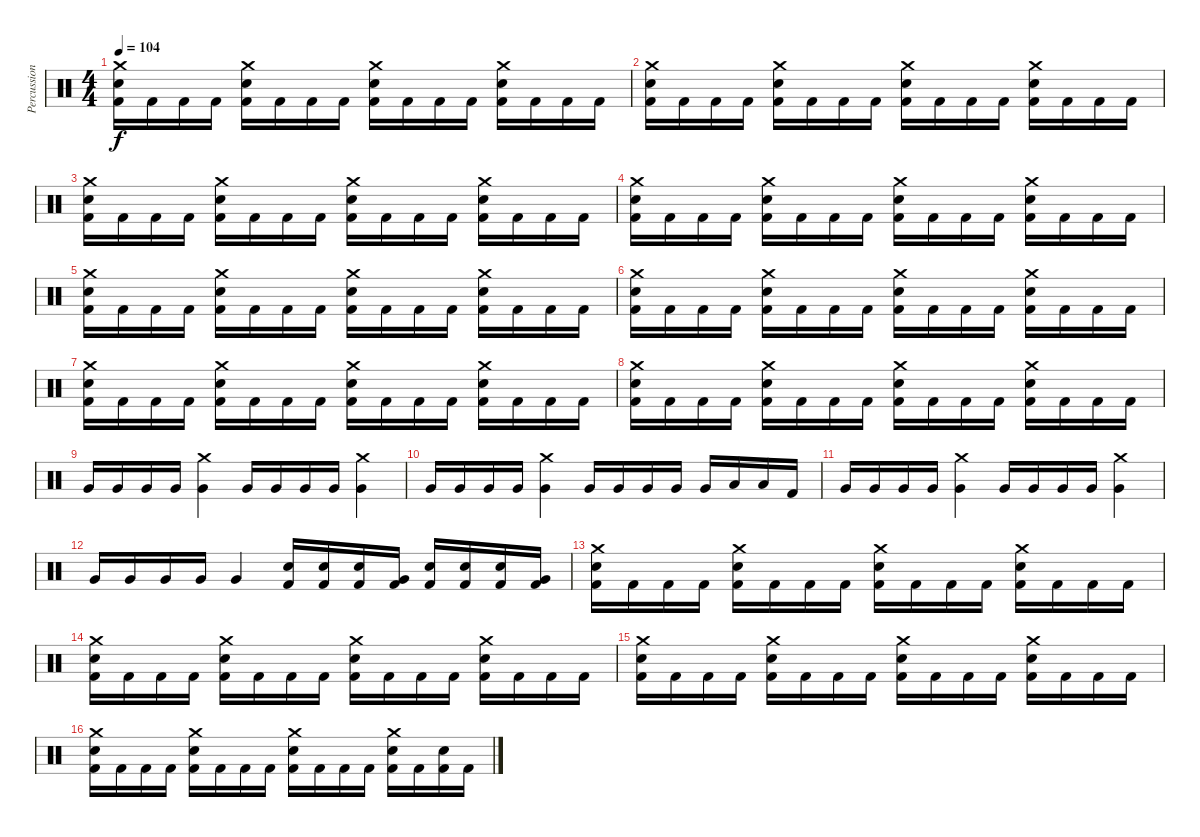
\track ("Percussion" "Percussion") {instrument percussion}
\staff {score}
\articulation defaults
\ts (4 4)
\tempo 104
\clef neutral
\ks c
("Crash medium (hit)" "Snare (hit) 2" "Kick (hit) 2").16{dy f} "Kick (hit) 2".16 "Kick (hit) 2".16 "Kick (hit) 2".16 ("Crash medium (hit)" "Snare (hit) 2" "Kick (hit) 2").16 "Kick (hit) 2".16 "Kick (hit) 2".16 "Kick (hit) 2".16 ("Crash medium (hit)" "Snare (hit) 2" "Kick (hit) 2").16 "Kick (hit) 2".16 "Kick (hit) 2".16 "Kick (hit) 2".16 ("Crash medium (hit)" "Snare (hit) 2" "Kick (hit) 2").16 "Kick (hit) 2".16 "Kick (hit) 2".16 "Kick (hit) 2".16 |
("Crash medium (hit)" "Snare (hit) 2" "Kick (hit) 2").16 "Kick (hit) 2".16 "Kick (hit) 2".16 "Kick (hit) 2".16 ("Crash medium (hit)" "Snare (hit) 2" "Kick (hit) 2").16 "Kick (hit) 2".16 "Kick (hit) 2".16 "Kick (hit) 2".16 ("Crash medium (hit)" "Snare (hit) 2" "Kick (hit) 2").16 "Kick (hit) 2".16 "Kick (hit) 2".16 "Kick (hit) 2".16 ("Crash medium (hit)" "Snare (hit) 2" "Kick (hit) 2").16 "Kick (hit) 2".16 "Kick (hit) 2".16 "Kick (hit) 2".16 |
("Crash medium (hit)" "Snare (hit) 2" "Kick (hit) 2").16 "Kick (hit) 2".16 "Kick (hit) 2".16 "Kick (hit) 2".16 ("Crash medium (hit)" "Snare (hit) 2" "Kick (hit) 2").16 "Kick (hit) 2".16 "Kick (hit) 2".16 "Kick (hit) 2".16 ("Crash medium (hit)" "Snare (hit) 2" "Kick (hit) 2").16 "Kick (hit) 2".16 "Kick (hit) 2".16 "Kick (hit) 2".16 ("Crash medium (hit)" "Snare (hit) 2" "Kick (hit) 2").16 "Kick (hit) 2".16 "Kick (hit) 2".16 "Kick (hit) 2".16 |
("Crash medium (hit)" "Snare (hit) 2" "Kick (hit) 2").16 "Kick (hit) 2".16 "Kick (hit) 2".16 "Kick (hit) 2".16 ("Crash medium (hit)" "Snare (hit) 2" "Kick (hit) 2").16 "Kick (hit) 2".16 "Kick (hit) 2".16 "Kick (hit) 2".16 ("Crash medium (hit)" "Snare (hit) 2" "Kick (hit) 2").16 "Kick (hit) 2".16 "Kick (hit) 2".16 "Kick (hit) 2".16 ("Crash medium (hit)" "Snare (hit) 2" "Kick (hit) 2").16 "Kick (hit) 2".16 "Kick (hit) 2".16 "Kick (hit) 2".16 |
("Crash medium (hit)" "Snare (hit) 2" "Kick (hit) 2").16 "Kick (hit) 2".16 "Kick (hit) 2".16 "Kick (hit) 2".16 ("Crash medium (hit)" "Snare (hit) 2" "Kick (hit) 2").16 "Kick (hit) 2".16 "Kick (hit) 2".16 "Kick (hit) 2".16 ("Crash medium (hit)" "Snare (hit) 2" "Kick (hit) 2").16 "Kick (hit) 2".16 "Kick (hit) 2".16 "Kick (hit) 2".16 ("Crash medium (hit)" "Snare (hit) 2" "Kick (hit) 2").16 "Kick (hit) 2".16 "Kick (hit) 2".16 "Kick (hit) 2".16 |
("Crash medium (hit)" "Snare (hit) 2" "Kick (hit) 2").16 "Kick (hit) 2".16 "Kick (hit) 2".16 "Kick (hit) 2".16 ("Crash medium (hit)" "Snare (hit) 2" "Kick (hit) 2").16 "Kick (hit) 2".16 "Kick (hit) 2".16 "Kick (hit) 2".16 ("Crash medium (hit)" "Snare (hit) 2" "Kick (hit) 2").16 "Kick (hit) 2".16 "Kick (hit) 2".16 "Kick (hit) 2".16 ("Crash medium (hit)" "Snare (hit) 2" "Kick (hit) 2").16 "Kick (hit) 2".16 "Kick (hit) 2".16 "Kick (hit) 2".16 |
("Crash medium (hit)" "Snare (hit) 2" "Kick (hit) 2").16 "Kick (hit) 2".16 "Kick (hit) 2".16 "Kick (hit) 2".16 ("Crash medium (hit)" "Snare (hit) 2" "Kick (hit) 2").16 "Kick (hit) 2".16 "Kick (hit) 2".16 "Kick (hit) 2".16 ("Crash medium (hit)" "Snare (hit) 2" "Kick (hit) 2").16 "Kick (hit) 2".16 "Kick (hit) 2".16 "Kick (hit) 2".16 ("Crash medium (hit)" "Snare (hit) 2" "Kick (hit) 2").16 "Kick (hit) 2".16 "Kick (hit) 2".16 "Kick (hit) 2".16 |
("Crash medium (hit)" "Snare (hit) 2" "Kick (hit) 2").16 "Kick (hit) 2".16 "Kick (hit) 2".16 "Kick (hit) 2".16 ("Crash medium (hit)" "Snare (hit) 2" "Kick (hit) 2").16 "Kick (hit) 2".16 "Kick (hit) 2".16 "Kick (hit) 2".16 ("Crash medium (hit)" "Snare (hit) 2" "Kick (hit) 2").16 "Kick (hit) 2".16 "Kick (hit) 2".16 "Kick (hit) 2".16 ("Crash medium (hit)" "Snare (hit) 2" "Kick (hit) 2").16 "Kick (hit) 2".16 "Kick (hit) 2".16 "Kick (hit) 2".16 |
"Very Low Tom (hit)".16 "Very Low Tom (hit)".16 "Very Low Tom (hit)".16 "Very Low Tom (hit)".16 ("Crash medium (hit)" "Very Low Tom (hit)").4 "Very Low Tom (hit)".16 "Very Low Tom (hit)".16 "Very Low Tom (hit)".16 "Very Low Tom (hit)".16 ("Crash medium (hit)" "Very Low Tom (hit)").4 |
"Very Low Tom (hit)".16 "Very Low Tom (hit)".16 "Very Low Tom (hit)".16 "Very Low Tom (hit)".16 ("Crash medium (hit)" "Very Low Tom (hit)").4 "Very Low Tom (hit)".16 "Very Low Tom (hit)".16 "Very Low Tom (hit)".16 "Very Low Tom (hit)".16 "Very Low Tom (hit)".16 "Low Floor Tom (hit)".16 "Low Floor Tom (hit)".16 "Kick (hit) 2".16 |
"Very Low Tom (hit)".16 "Very Low Tom (hit)".16 "Very Low Tom (hit)".16 "Very Low Tom (hit)".16 ("Crash medium (hit)" "Very Low Tom (hit)").4 "Very Low Tom (hit)".16 "Very Low Tom (hit)".16 "Very Low Tom (hit)".16 "Very Low Tom (hit)".16 ("Crash medium (hit)" "Very Low Tom (hit)").4 |
"Very Low Tom (hit)".16 "Very Low Tom (hit)".16 "Very Low Tom (hit)".16 "Very Low Tom (hit)".16 "Very Low Tom (hit)".4 ("Snare (hit) 2" "Kick (hit) 2").16 ("Snare (hit) 2" "Kick (hit) 2").16 ("Snare (hit) 2" "Kick (hit) 2").16 ("Very Low Tom (hit)" "Kick (hit) 2").16 ("Snare (hit) 2" "Kick (hit) 2").16 ("Snare (hit) 2" "Kick (hit) 2").16 ("Snare (hit) 2" "Kick (hit) 2").16 ("Very Low Tom (hit)" "Kick (hit) 2").16 |
("Crash medium (hit)" "Snare (hit) 2" "Kick (hit) 2").16 "Kick (hit) 2".16 "Kick (hit) 2".16 "Kick (hit) 2".16 ("Crash medium (hit)" "Snare (hit) 2" "Kick (hit) 2").16 "Kick (hit) 2".16 "Kick (hit) 2".16 "Kick (hit) 2".16 ("Crash medium (hit)" "Snare (hit) 2" "Kick (hit) 2").16 "Kick (hit) 2".16 "Kick (hit) 2".16 "Kick (hit) 2".16 ("Crash medium (hit)" "Snare (hit) 2" "Kick (hit) 2").16 "Kick (hit) 2".16 "Kick (hit) 2".16 "Kick (hit) 2".16 |
("Crash medium (hit)" "Snare (hit) 2" "Kick (hit) 2").16 "Kick (hit) 2".16 "Kick (hit) 2".16 "Kick (hit) 2".16 ("Crash medium (hit)" "Snare (hit) 2" "Kick (hit) 2").16 "Kick (hit) 2".16 "Kick (hit) 2".16 "Kick (hit) 2".16 ("Crash medium (hit)" "Snare (hit) 2" "Kick (hit) 2").16 "Kick (hit) 2".16 "Kick (hit) 2".16 "Kick (hit) 2".16 ("Crash medium (hit)" "Snare (hit) 2" "Kick (hit) 2").16 "Kick (hit) 2".16 "Kick (hit) 2".16 "Kick (hit) 2".16 |
("Crash medium (hit)" "Snare (hit) 2" "Kick (hit) 2").16 "Kick (hit) 2".16 "Kick (hit) 2".16 "Kick (hit) 2".16 ("Crash medium (hit)" "Snare (hit) 2" "Kick (hit) 2").16 "Kick (hit) 2".16 "Kick (hit) 2".16 "Kick (hit) 2".16 ("Crash medium (hit)" "Snare (hit) 2" "Kick (hit) 2").16 "Kick (hit) 2".16 "Kick (hit) 2".16 "Kick (hit) 2".16 ("Crash medium (hit)" "Snare (hit) 2" "Kick (hit) 2").16 "Kick (hit) 2".16 "Kick (hit) 2".16 "Kick (hit) 2".16 |
("Crash medium (hit)" "Snare (hit) 2" "Kick (hit) 2").16 "Kick (hit) 2".16 "Kick (hit) 2".16 "Kick (hit) 2".16 ("Crash medium (hit)" "Snare (hit) 2" "Kick (hit) 2").16 "Kick (hit) 2".16 "Kick (hit) 2".16 "Kick (hit) 2".16 ("Crash medium (hit)" "Snare (hit) 2" "Kick (hit) 2").16 "Kick (hit) 2".16 "Kick (hit) 2".16 "Kick (hit) 2".16 ("Crash medium (hit)" "Snare (hit) 2" "Kick (hit) 2").16 "Kick (hit) 2".16 ("Snare (hit) 2" "Kick (hit) 2").16 "Kick (hit) 2".16
